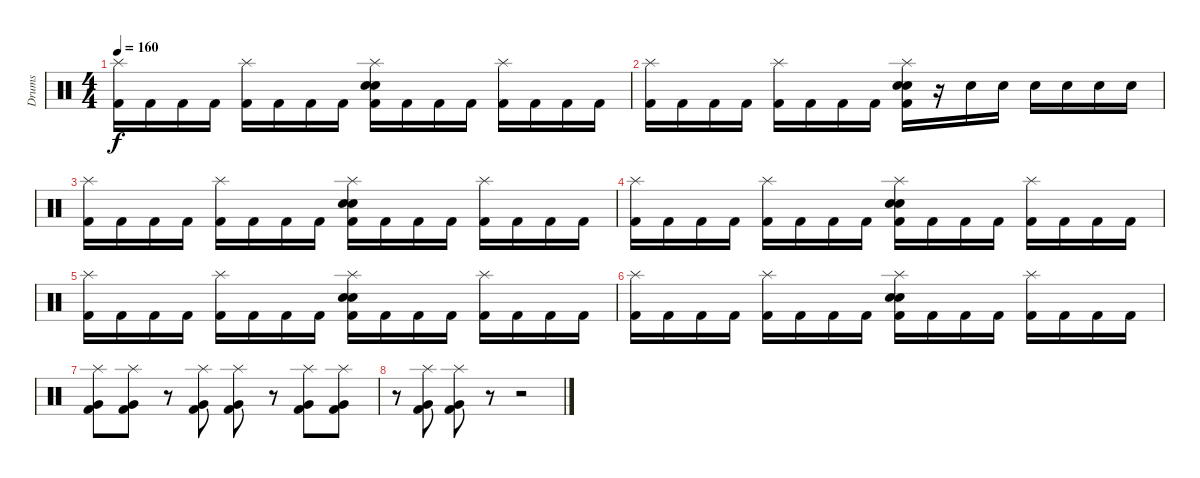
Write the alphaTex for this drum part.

\track ("Drums" "Drums") {instrument percussion}
\staff {score}
\articulation defaults
\ts (4 4)
\tempo 160
\clef neutral
\ks c
("Splash (hit)" "Kick (hit) 2").16{dy f} "Kick (hit) 2".16 "Kick (hit) 2".16 "Kick (hit) 2".16 ("Splash (hit)" "Kick (hit) 2").16 "Kick (hit) 2".16 "Kick (hit) 2".16 "Kick (hit) 2".16 ("Splash (hit)" "Electric Snare (hit)" "Snare (hit) 2" "Kick (hit) 2").16 "Kick (hit) 2".16 "Kick (hit) 2".16 "Kick (hit) 2".16 ("Splash (hit)" "Kick (hit) 2").16 "Kick (hit) 2".16 "Kick (hit) 2".16 "Kick (hit) 2".16 |
("Splash (hit)" "Kick (hit) 2").16 "Kick (hit) 2".16 "Kick (hit) 2".16 "Kick (hit) 2".16 ("Splash (hit)" "Kick (hit) 2").16 "Kick (hit) 2".16 "Kick (hit) 2".16 "Kick (hit) 2".16 ("Splash (hit)" "Electric Snare (hit)" "Snare (hit) 2" "Kick (hit) 2").16 r.16 "Electric Snare (hit)".16 "Electric Snare (hit)".16 "Electric Snare (hit)".16 "Electric Snare (hit)".16 "Electric Snare (hit)".16 "Electric Snare (hit)".16 |
("Splash (hit)" "Kick (hit) 2").16 "Kick (hit) 2".16 "Kick (hit) 2".16 "Kick (hit) 2".16 ("Splash (hit)" "Kick (hit) 2").16 "Kick (hit) 2".16 "Kick (hit) 2".16 "Kick (hit) 2".16 ("Splash (hit)" "Electric Snare (hit)" "Snare (hit) 2" "Kick (hit) 2").16 "Kick (hit) 2".16 "Kick (hit) 2".16 "Kick (hit) 2".16 ("Splash (hit)" "Kick (hit) 2").16 "Kick (hit) 2".16 "Kick (hit) 2".16 "Kick (hit) 2".16 |
("Splash (hit)" "Kick (hit) 2").16 "Kick (hit) 2".16 "Kick (hit) 2".16 "Kick (hit) 2".16 ("Splash (hit)" "Kick (hit) 2").16 "Kick (hit) 2".16 "Kick (hit) 2".16 "Kick (hit) 2".16 ("Splash (hit)" "Electric Snare (hit)" "Snare (hit) 2" "Kick (hit) 2").16 "Kick (hit) 2".16 "Kick (hit) 2".16 "Kick (hit) 2".16 ("Splash (hit)" "Kick (hit) 2").16 "Kick (hit) 2".16 "Kick (hit) 2".16 "Kick (hit) 2".16 |
("Splash (hit)" "Kick (hit) 2").16 "Kick (hit) 2".16 "Kick (hit) 2".16 "Kick (hit) 2".16 ("Splash (hit)" "Kick (hit) 2").16 "Kick (hit) 2".16 "Kick (hit) 2".16 "Kick (hit) 2".16 ("Splash (hit)" "Electric Snare (hit)" "Snare (hit) 2" "Kick (hit) 2").16 "Kick (hit) 2".16 "Kick (hit) 2".16 "Kick (hit) 2".16 ("Splash (hit)" "Kick (hit) 2").16 "Kick (hit) 2".16 "Kick (hit) 2".16 "Kick (hit) 2".16 |
("Splash (hit)" "Kick (hit) 2").16 "Kick (hit) 2".16 "Kick (hit) 2".16 "Kick (hit) 2".16 ("Splash (hit)" "Kick (hit) 2").16 "Kick (hit) 2".16 "Kick (hit) 2".16 "Kick (hit) 2".16 ("Splash (hit)" "Electric Snare (hit)" "Snare (hit) 2" "Kick (hit) 2").16 "Kick (hit) 2".16 "Kick (hit) 2".16 "Kick (hit) 2".16 ("Splash (hit)" "Kick (hit) 2").16 "Kick (hit) 2".16 "Kick (hit) 2".16 "Kick (hit) 2".16 |
("Splash (hit)" "Very Low Tom (hit)" "Kick (hit) 2").8 ("Splash (hit)" "Very Low Tom (hit)" "Kick (hit) 2").8 r.8 ("Splash (hit)" "Very Low Tom (hit)" "Kick (hit) 2").8 ("Splash (hit)" "Very Low Tom (hit)" "Kick (hit) 2").8 r.8 ("Splash (hit)" "Very Low Tom (hit)" "Kick (hit) 2").8 ("Splash (hit)" "Very Low Tom (hit)" "Kick (hit) 2").8 |
r.8 ("Splash (hit)" "Very Low Tom (hit)" "Kick (hit) 2").8 ("Splash (hit)" "Very Low Tom (hit)" "Kick (hit) 2").8 r.8 r.2
